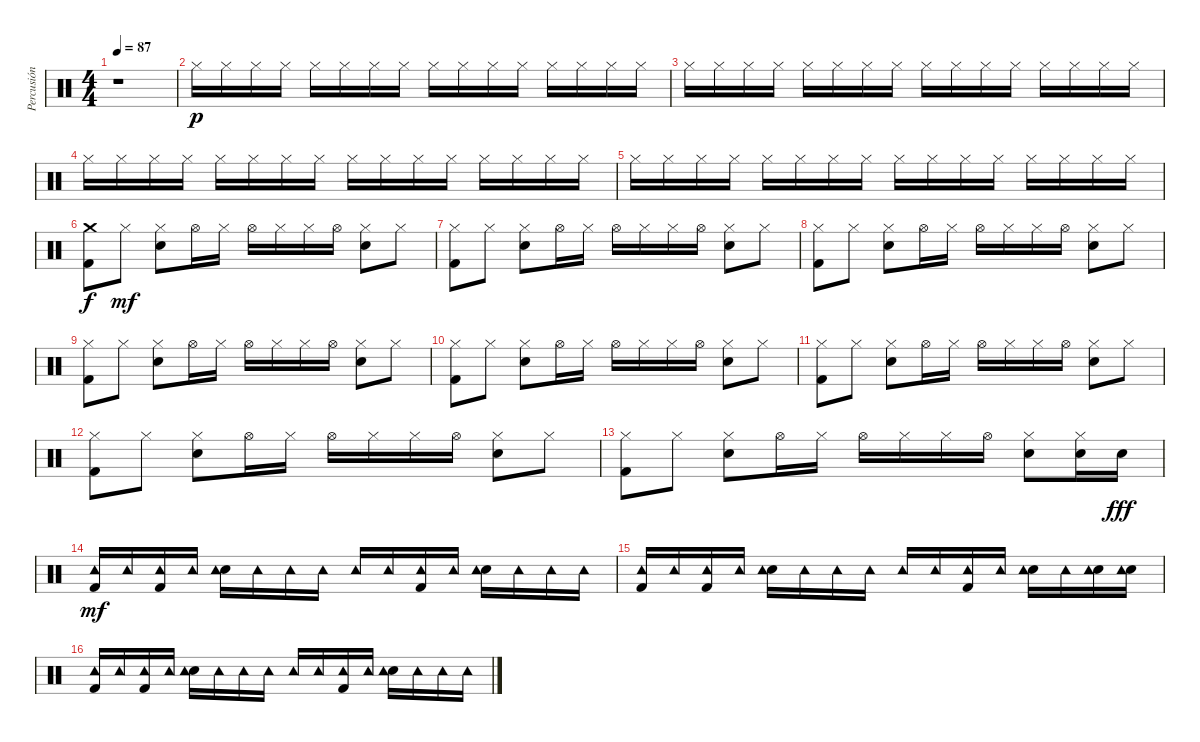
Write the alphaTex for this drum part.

\track ("Percusión" "Percusión") {instrument percussion}
\staff {score}
\articulation defaults
\ts (4 4)
\tempo 87
\clef neutral
\ks c
r.1{dy f} |
"Hi-Hat (closed)".16{dy p} "Hi-Hat (closed)".16 "Hi-Hat (closed)".16 "Hi-Hat (closed)".16 "Hi-Hat (closed)".16 "Hi-Hat (closed)".16 "Hi-Hat (closed)".16 "Hi-Hat (closed)".16 "Hi-Hat (closed)".16 "Hi-Hat (closed)".16 "Hi-Hat (closed)".16 "Hi-Hat (closed)".16 "Hi-Hat (closed)".16 "Hi-Hat (closed)".16 "Hi-Hat (closed)".16 "Hi-Hat (closed)".16 |
"Hi-Hat (closed)".16 "Hi-Hat (closed)".16 "Hi-Hat (closed)".16 "Hi-Hat (closed)".16 "Hi-Hat (closed)".16 "Hi-Hat (closed)".16 "Hi-Hat (closed)".16 "Hi-Hat (closed)".16 "Hi-Hat (closed)".16 "Hi-Hat (closed)".16 "Hi-Hat (closed)".16 "Hi-Hat (closed)".16 "Hi-Hat (closed)".16 "Hi-Hat (closed)".16 "Hi-Hat (closed)".16 "Hi-Hat (closed)".16 |
"Hi-Hat (closed)".16 "Hi-Hat (closed)".16 "Hi-Hat (closed)".16 "Hi-Hat (closed)".16 "Hi-Hat (closed)".16 "Hi-Hat (closed)".16 "Hi-Hat (closed)".16 "Hi-Hat (closed)".16 "Hi-Hat (closed)".16 "Hi-Hat (closed)".16 "Hi-Hat (closed)".16 "Hi-Hat (closed)".16 "Hi-Hat (closed)".16 "Hi-Hat (closed)".16 "Hi-Hat (closed)".16 "Hi-Hat (closed)".16 |
"Hi-Hat (closed)".16 "Hi-Hat (closed)".16 "Hi-Hat (closed)".16 "Hi-Hat (closed)".16 "Hi-Hat (closed)".16 "Hi-Hat (closed)".16 "Hi-Hat (closed)".16 "Hi-Hat (closed)".16 "Hi-Hat (closed)".16 "Hi-Hat (closed)".16 "Hi-Hat (closed)".16 "Hi-Hat (closed)".16 "Hi-Hat (closed)".16 "Hi-Hat (closed)".16 "Hi-Hat (closed)".16 "Hi-Hat (closed)".16 |
("Crash medium (hit)" "Kick (hit) 2").8{dy f} "Hi-Hat (closed)".8{dy mf} ("Electric Snare (hit)" "Hi-Hat (closed)").8 "Hi-Hat (open)".16 "Hi-Hat (closed)".16 "Hi-Hat (open)".16 "Hi-Hat (closed)".16 "Hi-Hat (closed)".16 "Hi-Hat (open)".16 ("Snare (hit) 2" "Hi-Hat (closed)").8 "Hi-Hat (closed)".8 |
("Kick (hit) 2" "Hi-Hat (closed)").8 "Hi-Hat (closed)".8 ("Electric Snare (hit)" "Hi-Hat (closed)").8 "Hi-Hat (open)".16 "Hi-Hat (closed)".16 "Hi-Hat (open)".16 "Hi-Hat (closed)".16 "Hi-Hat (closed)".16 "Hi-Hat (open)".16 ("Snare (hit) 2" "Hi-Hat (closed)").8 "Hi-Hat (closed)".8 |
("Kick (hit) 2" "Hi-Hat (closed)").8 "Hi-Hat (closed)".8 ("Electric Snare (hit)" "Hi-Hat (closed)").8 "Hi-Hat (open)".16 "Hi-Hat (closed)".16 "Hi-Hat (open)".16 "Hi-Hat (closed)".16 "Hi-Hat (closed)".16 "Hi-Hat (open)".16 ("Snare (hit) 2" "Hi-Hat (closed)").8 "Hi-Hat (closed)".8 |
("Kick (hit) 2" "Hi-Hat (closed)").8 "Hi-Hat (closed)".8 ("Electric Snare (hit)" "Hi-Hat (closed)").8 "Hi-Hat (open)".16 "Hi-Hat (closed)".16 "Hi-Hat (open)".16 "Hi-Hat (closed)".16 "Hi-Hat (closed)".16 "Hi-Hat (open)".16 ("Snare (hit) 2" "Hi-Hat (closed)").8 "Hi-Hat (closed)".8 |
("Kick (hit) 2" "Hi-Hat (closed)").8 "Hi-Hat (closed)".8 ("Electric Snare (hit)" "Hi-Hat (closed)").8 "Hi-Hat (open)".16 "Hi-Hat (closed)".16 "Hi-Hat (open)".16 "Hi-Hat (closed)".16 "Hi-Hat (closed)".16 "Hi-Hat (open)".16 ("Snare (hit) 2" "Hi-Hat (closed)").8 "Hi-Hat (closed)".8 |
("Kick (hit) 2" "Hi-Hat (closed)").8 "Hi-Hat (closed)".8 ("Electric Snare (hit)" "Hi-Hat (closed)").8 "Hi-Hat (open)".16 "Hi-Hat (closed)".16 "Hi-Hat (open)".16 "Hi-Hat (closed)".16 "Hi-Hat (closed)".16 "Hi-Hat (open)".16 ("Snare (hit) 2" "Hi-Hat (closed)").8 "Hi-Hat (closed)".8 |
("Kick (hit) 2" "Hi-Hat (closed)").8 "Hi-Hat (closed)".8 ("Electric Snare (hit)" "Hi-Hat (closed)").8 "Hi-Hat (open)".16 "Hi-Hat (closed)".16 "Hi-Hat (open)".16 "Hi-Hat (closed)".16 "Hi-Hat (closed)".16 "Hi-Hat (open)".16 ("Snare (hit) 2" "Hi-Hat (closed)").8 "Hi-Hat (closed)".8 |
("Kick (hit) 2" "Hi-Hat (closed)").8 "Hi-Hat (closed)".8 ("Electric Snare (hit)" "Hi-Hat (closed)").8 "Hi-Hat (open)".16 "Hi-Hat (closed)".16 "Hi-Hat (open)".16 "Hi-Hat (closed)".16 "Hi-Hat (closed)".16 "Hi-Hat (open)".16 ("Snare (hit) 2" "Hi-Hat (closed)").8 ("Snare (hit) 2" "Hi-Hat (closed)").16 "Snare (hit) 2".16{dy fff} |
("Kick (hit) 2" "Tambourine (hit)").16{dy mf} "Tambourine (hit)".16 ("Kick (hit) 2" "Tambourine (hit)").16 "Tambourine (hit)".16 ("Snare (hit) 2" "Tambourine (hit)").16 "Tambourine (hit)".16 "Tambourine (hit)".16 "Tambourine (hit)".16 "Tambourine (hit)".16 "Tambourine (hit)".16 ("Kick (hit) 2" "Tambourine (hit)").16 "Tambourine (hit)".16 ("Snare (hit) 2" "Tambourine (hit)").16 "Tambourine (hit)".16 "Tambourine (hit)".16 "Tambourine (hit)".16 |
("Kick (hit) 2" "Tambourine (hit)").16 "Tambourine (hit)".16 ("Kick (hit) 2" "Tambourine (hit)").16 "Tambourine (hit)".16 ("Snare (hit) 2" "Tambourine (hit)").16 "Tambourine (hit)".16 "Tambourine (hit)".16 "Tambourine (hit)".16 "Tambourine (hit)".16 "Tambourine (hit)".16 ("Kick (hit) 2" "Tambourine (hit)").16 "Tambourine (hit)".16 ("Snare (hit) 2" "Tambourine (hit)").16 "Tambourine (hit)".16 ("Snare (hit) 2" "Tambourine (hit)").16 ("Snare (hit) 2" "Tambourine (hit)").16 |
("Kick (hit) 2" "Tambourine (hit)").16 "Tambourine (hit)".16 ("Kick (hit) 2" "Tambourine (hit)").16 "Tambourine (hit)".16 ("Snare (hit) 2" "Tambourine (hit)").16 "Tambourine (hit)".16 "Tambourine (hit)".16 "Tambourine (hit)".16 "Tambourine (hit)".16 "Tambourine (hit)".16 ("Kick (hit) 2" "Tambourine (hit)").16 "Tambourine (hit)".16 ("Snare (hit) 2" "Tambourine (hit)").16 "Tambourine (hit)".16 "Tambourine (hit)".16 "Tambourine (hit)".16
